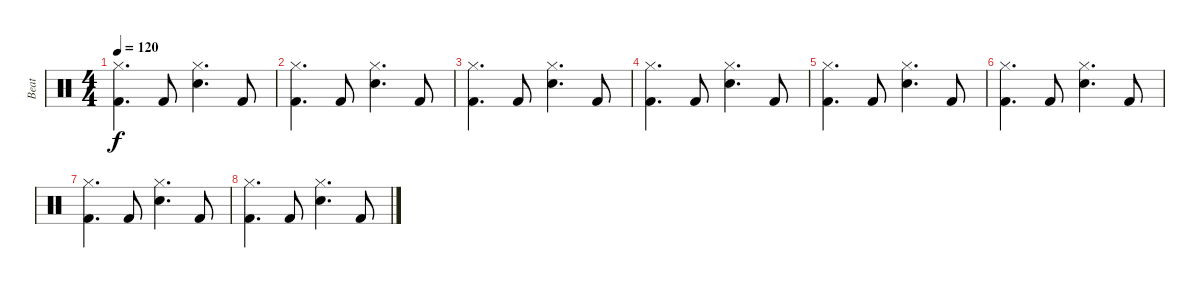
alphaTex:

\track ("Beat" "Beat") {instrument percussion}
\staff {score}
\articulation defaults
\ts (4 4)
\tempo 120
\clef neutral
\ks c
("Hi-Hat (closed)" "Kick (hit) 2").4{d dy f} "Kick (hit) 2".8 ("Hi-Hat (closed)" "Snare (hit) 2").4{d} "Kick (hit) 2".8 |
("Hi-Hat (closed)" "Kick (hit) 2").4{d} "Kick (hit) 2".8 ("Hi-Hat (closed)" "Snare (hit) 2").4{d} "Kick (hit) 2".8 |
("Hi-Hat (closed)" "Kick (hit) 2").4{d} "Kick (hit) 2".8 ("Hi-Hat (closed)" "Snare (hit) 2").4{d} "Kick (hit) 2".8 |
("Hi-Hat (closed)" "Kick (hit) 2").4{d} "Kick (hit) 2".8 ("Hi-Hat (closed)" "Snare (hit) 2").4{d} "Kick (hit) 2".8 |
("Hi-Hat (closed)" "Kick (hit) 2").4{d} "Kick (hit) 2".8 ("Hi-Hat (closed)" "Snare (hit) 2").4{d} "Kick (hit) 2".8 |
("Hi-Hat (closed)" "Kick (hit) 2").4{d} "Kick (hit) 2".8 ("Hi-Hat (closed)" "Snare (hit) 2").4{d} "Kick (hit) 2".8 |
("Hi-Hat (closed)" "Kick (hit) 2").4{d} "Kick (hit) 2".8 ("Hi-Hat (closed)" "Snare (hit) 2").4{d} "Kick (hit) 2".8 |
("Hi-Hat (closed)" "Kick (hit) 2").4{d} "Kick (hit) 2".8 ("Hi-Hat (closed)" "Snare (hit) 2").4{d} "Kick (hit) 2".8
